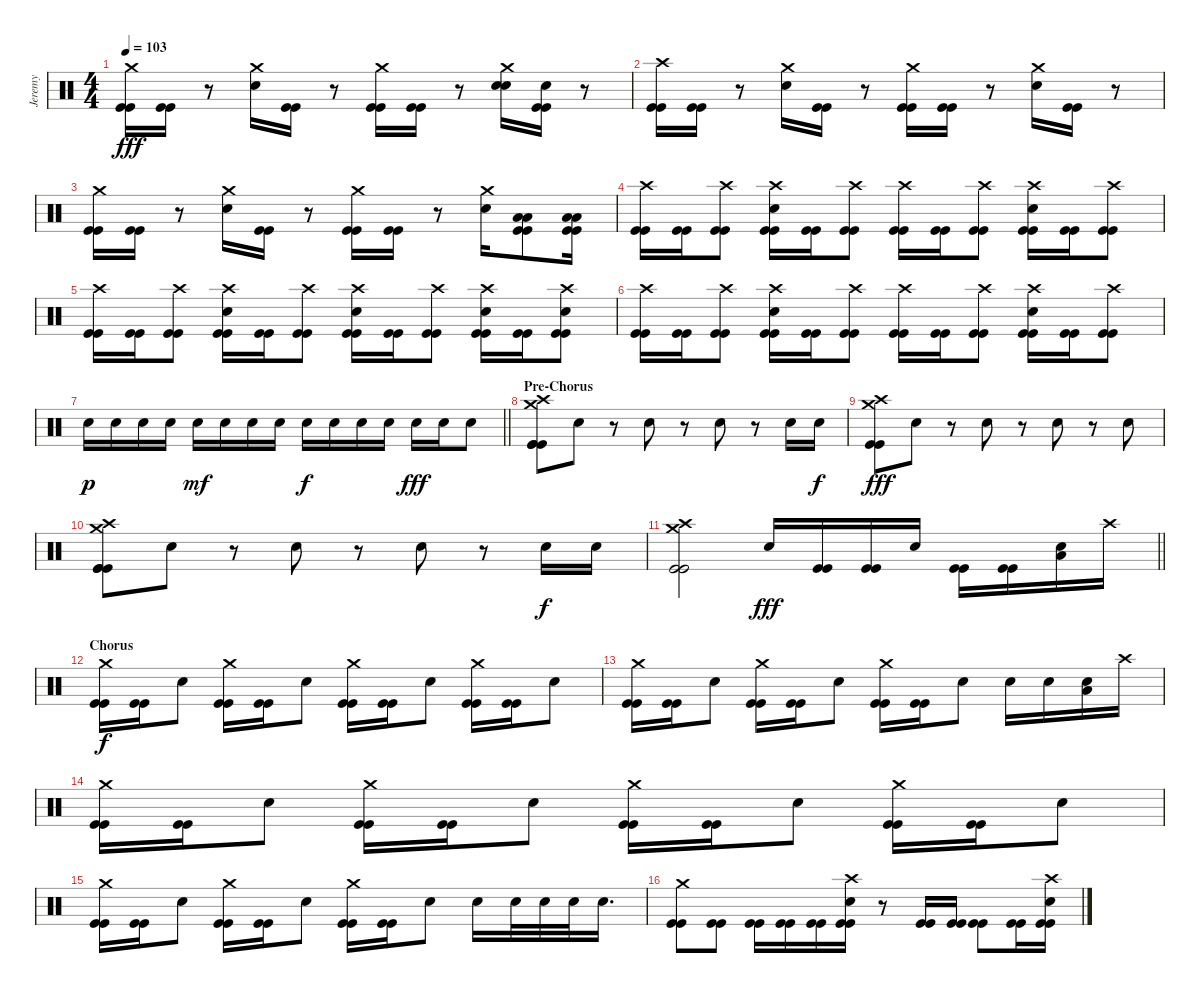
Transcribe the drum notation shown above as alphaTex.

\track ("Jeremy" "Jeremy") {instrument percussion}
\staff {score}
\articulation defaults
\ts (4 4)
\tempo 103
\clef neutral
\ks c
("Crash medium (hit)" "Kick (hit)" "Kick (hit)").16{dy fff} ("Kick (hit)" "Kick (hit)").16 r.8 ("Crash medium (hit)" "Electric Snare (hit)").16 ("Kick (hit)" "Kick (hit)").16 r.8 ("Crash medium (hit)" "Kick (hit)" "Kick (hit)").16 ("Kick (hit)" "Kick (hit)").16 r.8 ("Crash medium (hit)" "Electric Snare (hit)" "Electric Snare (hit)").16 ("Electric Snare (hit)" "Kick (hit)" "Kick (hit)").16 r.8 |
("Crash high (hit)" "Kick (hit)" "Kick (hit)").16 ("Kick (hit)" "Kick (hit)").16 r.8 ("Crash medium (hit)" "Electric Snare (hit)").16 ("Kick (hit)" "Kick (hit)").16 r.8 ("Crash medium (hit)" "Kick (hit)" "Kick (hit)").16 ("Kick (hit)" "Kick (hit)").16 r.8 ("Crash medium (hit)" "Electric Snare (hit)").16 ("Kick (hit)" "Kick (hit)").16 r.8 |
("Crash medium (hit)" "Kick (hit)" "Kick (hit)").16 ("Kick (hit)" "Kick (hit)").16 r.8 ("Crash medium (hit)" "Electric Snare (hit)").16 ("Kick (hit)" "Kick (hit)").16 r.8 ("Crash medium (hit)" "Kick (hit)" "Kick (hit)").16 ("Kick (hit)" "Kick (hit)").16 r.8 ("Crash medium (hit)" "Electric Snare (hit)").16 ("Low Tom (hit)" "Low Tom (hit)" "Kick (hit)" "Kick (hit)").8 ("Low Tom (hit)" "Low Tom (hit)" "Kick (hit)" "Kick (hit)").16 |
("Crash high (hit)" "Kick (hit)" "Kick (hit)").16 ("Kick (hit)" "Kick (hit)").16 ("Crash high (hit)" "Kick (hit)" "Kick (hit)").8 ("Crash high (hit)" "Electric Snare (hit)" "Kick (hit)" "Kick (hit)").16 ("Kick (hit)" "Kick (hit)").16 ("Crash high (hit)" "Kick (hit)" "Kick (hit)").8 ("Crash high (hit)" "Kick (hit)" "Kick (hit)").16 ("Kick (hit)" "Kick (hit)").16 ("Crash high (hit)" "Kick (hit)" "Kick (hit)").8 ("Crash high (hit)" "Electric Snare (hit)" "Kick (hit)" "Kick (hit)").16 ("Kick (hit)" "Kick (hit)").16 ("Crash high (hit)" "Kick (hit)" "Kick (hit)").8 |
("Crash high (hit)" "Kick (hit)" "Kick (hit)").16 ("Kick (hit)" "Kick (hit)").16 ("Crash high (hit)" "Kick (hit)" "Kick (hit)").8 ("Crash high (hit)" "Electric Snare (hit)" "Kick (hit)" "Kick (hit)").16 ("Kick (hit)" "Kick (hit)").16 ("Crash high (hit)" "Kick (hit)" "Kick (hit)").8 ("Crash high (hit)" "Electric Snare (hit)" "Kick (hit)" "Kick (hit)").16 ("Kick (hit)" "Kick (hit)").16 ("Crash high (hit)" "Kick (hit)" "Kick (hit)").8 ("Crash high (hit)" "Electric Snare (hit)" "Kick (hit)" "Kick (hit)").16 ("Kick (hit)" "Kick (hit)").16 ("Crash high (hit)" "Electric Snare (hit)" "Kick (hit)" "Kick (hit)").8 |
("Crash high (hit)" "Kick (hit)" "Kick (hit)").16 ("Kick (hit)" "Kick (hit)").16 ("Crash high (hit)" "Kick (hit)" "Kick (hit)").8 ("Crash high (hit)" "Electric Snare (hit)" "Kick (hit)" "Kick (hit)").16 ("Kick (hit)" "Kick (hit)").16 ("Crash high (hit)" "Kick (hit)" "Kick (hit)").8 ("Crash high (hit)" "Kick (hit)" "Kick (hit)").16 ("Kick (hit)" "Kick (hit)").16 ("Crash high (hit)" "Kick (hit)" "Kick (hit)").8 ("Crash high (hit)" "Electric Snare (hit)" "Kick (hit)" "Kick (hit)").16 ("Kick (hit)" "Kick (hit)").16 ("Crash high (hit)" "Kick (hit)" "Kick (hit)").8 |
\barLineRight lightlight "Electric Snare (hit)".16{dy p} "Electric Snare (hit)".16 "Electric Snare (hit)".16 "Electric Snare (hit)".16 "Electric Snare (hit)".16{dy mf} "Electric Snare (hit)".16 "Electric Snare (hit)".16 "Electric Snare (hit)".16 "Electric Snare (hit)".16{dy f} "Electric Snare (hit)".16 "Electric Snare (hit)".16 "Electric Snare (hit)".16 "Electric Snare (hit)".16{dy fff} "Electric Snare (hit)".16 "Electric Snare (hit)".8
|
\section ("" "Pre-Chorus")
("Crash high (hit)" "Crash medium (hit)" "Kick (hit)" "Kick (hit)" "Kick (hit)").8 "Electric Snare (hit)".8 r.8 "Electric Snare (hit)".8 r.8 "Electric Snare (hit)".8 r.8 "Electric Snare (hit)".16 "Electric Snare (hit)".16{dy f} |
("Crash high (hit)" "Crash medium (hit)" "Kick (hit)" "Kick (hit)").8{dy fff} "Electric Snare (hit)".8 r.8 "Electric Snare (hit)".8 r.8 "Electric Snare (hit)".8 r.8 "Electric Snare (hit)".8 |
("Crash high (hit)" "Crash medium (hit)" "Kick (hit)" "Kick (hit)" "Kick (hit)").8 "Electric Snare (hit)".8 r.8 "Electric Snare (hit)".8 r.8 "Electric Snare (hit)".8 r.8 "Electric Snare (hit)".16{dy f} "Electric Snare (hit)".16 |
\barLineRight lightlight
("Crash high (hit)" "Crash medium (hit)" "Kick (hit)" "Kick (hit)").2 "Electric Snare (hit)".16{dy fff} ("Kick (hit)" "Kick (hit)").16 ("Kick (hit)" "Kick (hit)").16 "Electric Snare (hit)".16 ("Kick (hit)" "Kick (hit)").16 ("Kick (hit)" "Kick (hit)").16 ("Electric Snare (hit)" "Low Tom (hit)").16 "Crash high (hit)".16 |
\section ("" "Chorus")
("Crash medium (hit)" "Kick (hit)" "Kick (hit)").16{dy f} ("Kick (hit)" "Kick (hit)").16 "Electric Snare (hit)".8 ("Crash medium (hit)" "Kick (hit)" "Kick (hit)").16 ("Kick (hit)" "Kick (hit)").16 "Electric Snare (hit)".8 ("Crash medium (hit)" "Kick (hit)" "Kick (hit)").16 ("Kick (hit)" "Kick (hit)").16 "Electric Snare (hit)".8 ("Crash medium (hit)" "Kick (hit)" "Kick (hit)").16 ("Kick (hit)" "Kick (hit)").16 "Electric Snare (hit)".8 |
("Crash medium (hit)" "Kick (hit)" "Kick (hit)").16 ("Kick (hit)" "Kick (hit)").16 "Electric Snare (hit)".8 ("Crash medium (hit)" "Kick (hit)" "Kick (hit)").16 ("Kick (hit)" "Kick (hit)").16 "Electric Snare (hit)".8 ("Crash medium (hit)" "Kick (hit)" "Kick (hit)").16 ("Kick (hit)" "Kick (hit)").16 "Electric Snare (hit)".8 "Electric Snare (hit)".16 "Electric Snare (hit)".16 ("Electric Snare (hit)" "Low Tom (hit)").16 "Crash high (hit)".16 |
("Crash medium (hit)" "Kick (hit)" "Kick (hit)").16 ("Kick (hit)" "Kick (hit)").16 "Electric Snare (hit)".8 ("Crash medium (hit)" "Kick (hit)" "Kick (hit)").16 ("Kick (hit)" "Kick (hit)").16 "Electric Snare (hit)".8 ("Crash medium (hit)" "Kick (hit)" "Kick (hit)").16 ("Kick (hit)" "Kick (hit)").16 "Electric Snare (hit)".8 ("Crash medium (hit)" "Kick (hit)" "Kick (hit)").16 ("Kick (hit)" "Kick (hit)").16 "Electric Snare (hit)".8 |
("Crash medium (hit)" "Kick (hit)" "Kick (hit)").16 ("Kick (hit)" "Kick (hit)").16 "Electric Snare (hit)".8 ("Crash medium (hit)" "Kick (hit)" "Kick (hit)").16 ("Kick (hit)" "Kick (hit)").16 "Electric Snare (hit)".8 ("Crash medium (hit)" "Kick (hit)" "Kick (hit)").16 ("Kick (hit)" "Kick (hit)").16 "Electric Snare (hit)".8 "Electric Snare (hit)".16 "Electric Snare (hit)".32 "Electric Snare (hit)".32 "Electric Snare (hit)".32 "Electric Snare (hit)".16{d} |
("Crash medium (hit)" "Kick (hit)" "Kick (hit)").8 ("Kick (hit)" "Kick (hit)").8 ("Kick (hit)" "Kick (hit)").16 ("Kick (hit)" "Kick (hit)").16 ("Kick (hit)" "Kick (hit)").16 ("Crash high (hit)" "Electric Snare (hit)" "Kick (hit)" "Kick (hit)").16 r.8 ("Kick (hit)" "Kick (hit)").16 ("Kick (hit)" "Kick (hit)").16 ("Kick (hit)" "Kick (hit)").8 ("Kick (hit)" "Kick (hit)").16 ("Crash high (hit)" "Electric Snare (hit)" "Kick (hit)" "Kick (hit)").16
